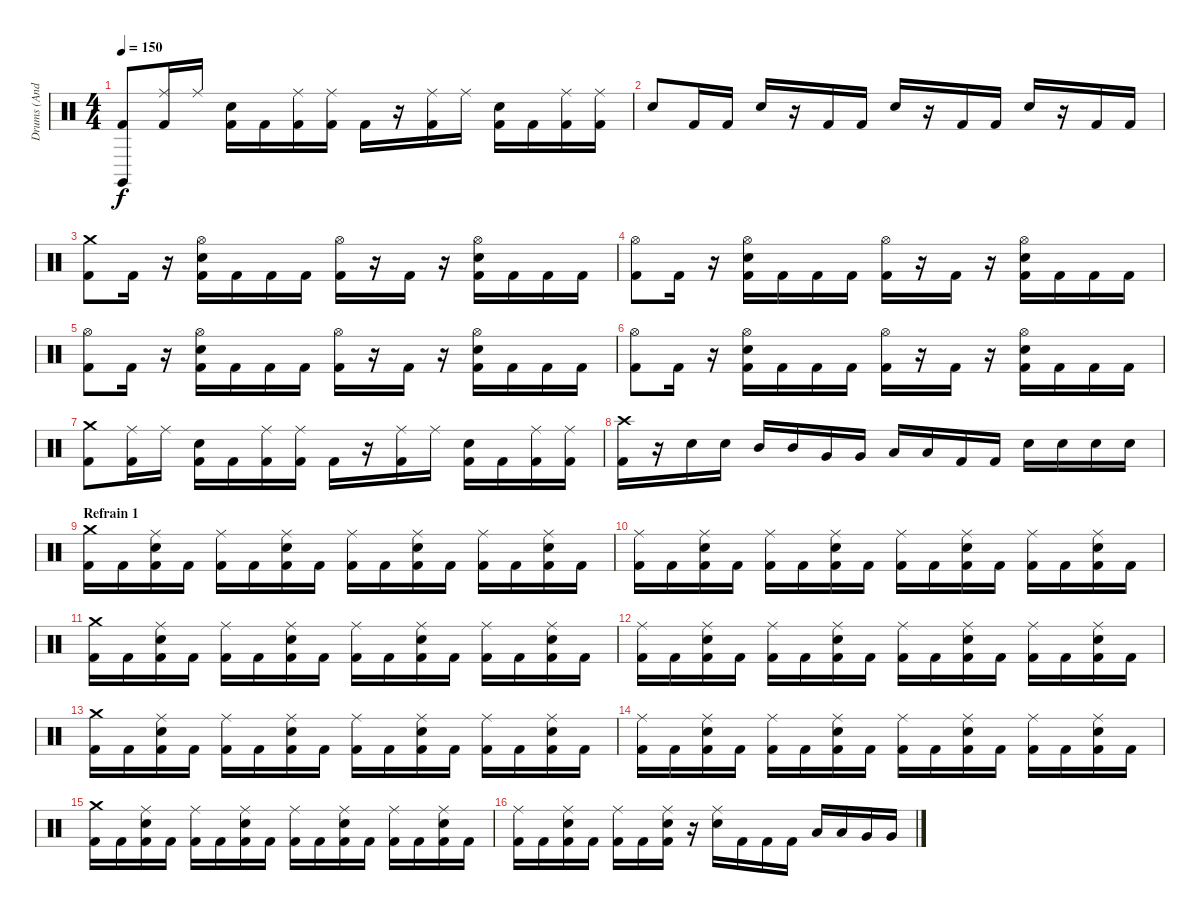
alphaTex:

\track ("Drums (Andy C)" "Drums (And") {instrument percussion}
\staff {score}
\articulation defaults
\ts (4 4)
\tempo 150
\clef neutral
\ks c
("Claves (hit)" "Kick (hit) 2").8{dy f} ("Ride (middle)" "Kick (hit) 2").16 "Ride (middle)".16 ("Kick (hit) 2" "Electric Snare (hit)").16 "Kick (hit) 2".16 ("Ride (middle)" "Kick (hit) 2").16 ("Ride (middle)" "Kick (hit) 2").16 "Kick (hit) 2".16 r.16 ("Ride (middle)" "Kick (hit) 2").16 "Ride (middle)".16 ("Kick (hit) 2" "Electric Snare (hit)").16 "Kick (hit) 2".16 ("Ride (middle)" "Kick (hit) 2").16 ("Ride (middle)" "Kick (hit) 2").16 |
"Electric Snare (hit)".8 "Kick (hit) 2".16 "Kick (hit) 2".16 "Electric Snare (hit)".16 r.16 "Kick (hit) 2".16 "Kick (hit) 2".16 "Electric Snare (hit)".16 r.16 "Kick (hit) 2".16 "Kick (hit) 2".16 "Electric Snare (hit)".16 r.16 "Kick (hit) 2".16 "Kick (hit) 2".16 |
("Crash medium (hit)" "Kick (hit) 2").8 "Kick (hit) 2".16 r.16 ("Hi-Hat (open)" "Kick (hit) 2" "Electric Snare (hit)").16 "Kick (hit) 2".16 "Kick (hit) 2".16 "Kick (hit) 2".16 ("Hi-Hat (open)" "Kick (hit) 2").16 r.16 "Kick (hit) 2".16 r.16 ("Hi-Hat (open)" "Kick (hit) 2" "Electric Snare (hit)").16 "Kick (hit) 2".16 "Kick (hit) 2".16 "Kick (hit) 2".16 |
("Hi-Hat (open)" "Kick (hit) 2").8 "Kick (hit) 2".16 r.16 ("Hi-Hat (open)" "Kick (hit) 2" "Electric Snare (hit)").16 "Kick (hit) 2".16 "Kick (hit) 2".16 "Kick (hit) 2".16 ("Hi-Hat (open)" "Kick (hit) 2").16 r.16 "Kick (hit) 2".16 r.16 ("Hi-Hat (open)" "Kick (hit) 2" "Electric Snare (hit)").16 "Kick (hit) 2".16 "Kick (hit) 2".16 "Kick (hit) 2".16 |
("Hi-Hat (open)" "Kick (hit) 2").8 "Kick (hit) 2".16 r.16 ("Hi-Hat (open)" "Kick (hit) 2" "Electric Snare (hit)").16 "Kick (hit) 2".16 "Kick (hit) 2".16 "Kick (hit) 2".16 ("Hi-Hat (open)" "Kick (hit) 2").16 r.16 "Kick (hit) 2".16 r.16 ("Hi-Hat (open)" "Kick (hit) 2" "Electric Snare (hit)").16 "Kick (hit) 2".16 "Kick (hit) 2".16 "Kick (hit) 2".16 |
("Hi-Hat (open)" "Kick (hit) 2").8 "Kick (hit) 2".16 r.16 ("Hi-Hat (open)" "Kick (hit) 2" "Electric Snare (hit)").16 "Kick (hit) 2".16 "Kick (hit) 2".16 "Kick (hit) 2".16 ("Hi-Hat (open)" "Kick (hit) 2").16 r.16 "Kick (hit) 2".16 r.16 ("Hi-Hat (open)" "Kick (hit) 2" "Electric Snare (hit)").16 "Kick (hit) 2".16 "Kick (hit) 2".16 "Kick (hit) 2".16 |
("Crash medium (hit)" "Kick (hit) 2").8 ("Ride (middle)" "Kick (hit) 2").16 "Ride (middle)".16 ("Kick (hit) 2" "Electric Snare (hit)").16 "Kick (hit) 2".16 ("Ride (middle)" "Kick (hit) 2").16 ("Ride (middle)" "Kick (hit) 2").16 "Kick (hit) 2".16 r.16 ("Ride (middle)" "Kick (hit) 2").16 "Ride (middle)".16 ("Kick (hit) 2" "Electric Snare (hit)").16 "Kick (hit) 2".16 ("Ride (middle)" "Kick (hit) 2").16 ("Ride (middle)" "Kick (hit) 2").16 |
("Crash high (hit)" "Kick (hit) 2").16 r.16 "Snare (hit) 2".16 "Snare (hit) 2".16 "Mid Tom (hit)".16 "Mid Tom (hit)".16 "Very Low Tom (hit)".16 "Very Low Tom (hit)".16 "Low Floor Tom (hit)".16 "Low Floor Tom (hit)".16 "Kick (hit) 2".16 "Kick (hit) 2".16 "Electric Snare (hit)".16 "Electric Snare (hit)".16 "Electric Snare (hit)".16 "Electric Snare (hit)".16 |
\section ("" "Refrain 1")
("Crash medium (hit)" "Kick (hit) 2").16 "Kick (hit) 2".16 ("Ride (middle)" "Kick (hit) 2" "Electric Snare (hit)").16 "Kick (hit) 2".16 ("Ride (middle)" "Kick (hit) 2").16 "Kick (hit) 2".16 ("Ride (middle)" "Kick (hit) 2" "Electric Snare (hit)").16 "Kick (hit) 2".16 ("Ride (middle)" "Kick (hit) 2").16 "Kick (hit) 2".16 ("Ride (middle)" "Kick (hit) 2" "Electric Snare (hit)").16 "Kick (hit) 2".16 ("Ride (middle)" "Kick (hit) 2").16 "Kick (hit) 2".16 ("Ride (middle)" "Kick (hit) 2" "Electric Snare (hit)").16 "Kick (hit) 2".16 |
("Ride (middle)" "Kick (hit) 2").16 "Kick (hit) 2".16 ("Ride (middle)" "Kick (hit) 2" "Electric Snare (hit)").16 "Kick (hit) 2".16 ("Ride (middle)" "Kick (hit) 2").16 "Kick (hit) 2".16 ("Ride (middle)" "Kick (hit) 2" "Electric Snare (hit)").16 "Kick (hit) 2".16 ("Ride (middle)" "Kick (hit) 2").16 "Kick (hit) 2".16 ("Ride (middle)" "Kick (hit) 2" "Electric Snare (hit)").16 "Kick (hit) 2".16 ("Ride (middle)" "Kick (hit) 2").16 "Kick (hit) 2".16 ("Ride (middle)" "Kick (hit) 2" "Electric Snare (hit)").16 "Kick (hit) 2".16 |
("Crash medium (hit)" "Kick (hit) 2").16 "Kick (hit) 2".16 ("Ride (middle)" "Kick (hit) 2" "Electric Snare (hit)").16 "Kick (hit) 2".16 ("Ride (middle)" "Kick (hit) 2").16 "Kick (hit) 2".16 ("Ride (middle)" "Kick (hit) 2" "Electric Snare (hit)").16 "Kick (hit) 2".16 ("Ride (middle)" "Kick (hit) 2").16 "Kick (hit) 2".16 ("Ride (middle)" "Kick (hit) 2" "Electric Snare (hit)").16 "Kick (hit) 2".16 ("Ride (middle)" "Kick (hit) 2").16 "Kick (hit) 2".16 ("Ride (middle)" "Kick (hit) 2" "Electric Snare (hit)").16 "Kick (hit) 2".16 |
("Ride (middle)" "Kick (hit) 2").16 "Kick (hit) 2".16 ("Ride (middle)" "Kick (hit) 2" "Electric Snare (hit)").16 "Kick (hit) 2".16 ("Ride (middle)" "Kick (hit) 2").16 "Kick (hit) 2".16 ("Ride (middle)" "Kick (hit) 2" "Electric Snare (hit)").16 "Kick (hit) 2".16 ("Ride (middle)" "Kick (hit) 2").16 "Kick (hit) 2".16 ("Ride (middle)" "Kick (hit) 2" "Electric Snare (hit)").16 "Kick (hit) 2".16 ("Ride (middle)" "Kick (hit) 2").16 "Kick (hit) 2".16 ("Ride (middle)" "Kick (hit) 2" "Electric Snare (hit)").16 "Kick (hit) 2".16 |
("Crash medium (hit)" "Kick (hit) 2").16 "Kick (hit) 2".16 ("Ride (middle)" "Kick (hit) 2" "Electric Snare (hit)").16 "Kick (hit) 2".16 ("Ride (middle)" "Kick (hit) 2").16 "Kick (hit) 2".16 ("Ride (middle)" "Kick (hit) 2" "Electric Snare (hit)").16 "Kick (hit) 2".16 ("Ride (middle)" "Kick (hit) 2").16 "Kick (hit) 2".16 ("Ride (middle)" "Kick (hit) 2" "Electric Snare (hit)").16 "Kick (hit) 2".16 ("Ride (middle)" "Kick (hit) 2").16 "Kick (hit) 2".16 ("Ride (middle)" "Kick (hit) 2" "Electric Snare (hit)").16 "Kick (hit) 2".16 |
("Ride (middle)" "Kick (hit) 2").16 "Kick (hit) 2".16 ("Ride (middle)" "Kick (hit) 2" "Electric Snare (hit)").16 "Kick (hit) 2".16 ("Ride (middle)" "Kick (hit) 2").16 "Kick (hit) 2".16 ("Ride (middle)" "Kick (hit) 2" "Electric Snare (hit)").16 "Kick (hit) 2".16 ("Ride (middle)" "Kick (hit) 2").16 "Kick (hit) 2".16 ("Ride (middle)" "Kick (hit) 2" "Electric Snare (hit)").16 "Kick (hit) 2".16 ("Ride (middle)" "Kick (hit) 2").16 "Kick (hit) 2".16 ("Ride (middle)" "Kick (hit) 2" "Electric Snare (hit)").16 "Kick (hit) 2".16 |
("Crash medium (hit)" "Kick (hit) 2").16 "Kick (hit) 2".16 ("Ride (middle)" "Kick (hit) 2" "Electric Snare (hit)").16 "Kick (hit) 2".16 ("Ride (middle)" "Kick (hit) 2").16 "Kick (hit) 2".16 ("Ride (middle)" "Kick (hit) 2" "Electric Snare (hit)").16 "Kick (hit) 2".16 ("Ride (middle)" "Kick (hit) 2").16 "Kick (hit) 2".16 ("Ride (middle)" "Kick (hit) 2" "Electric Snare (hit)").16 "Kick (hit) 2".16 ("Ride (middle)" "Kick (hit) 2").16 "Kick (hit) 2".16 ("Ride (middle)" "Kick (hit) 2" "Electric Snare (hit)").16 "Kick (hit) 2".16 |
("Ride (middle)" "Kick (hit) 2").16 "Kick (hit) 2".16 ("Ride (middle)" "Kick (hit) 2" "Electric Snare (hit)").16 "Kick (hit) 2".16 ("Ride (middle)" "Kick (hit) 2").16 "Kick (hit) 2".16 ("Ride (middle)" "Kick (hit) 2" "Electric Snare (hit)").16 r.16 ("Ride (middle)" "Electric Snare (hit)").16 "Kick (hit) 2".16 "Kick (hit) 2".16 "Kick (hit) 2".16 "Low Tom (hit)".16 "Low Tom (hit)".16 "Very Low Tom (hit)".16 "Very Low Tom (hit)".16
